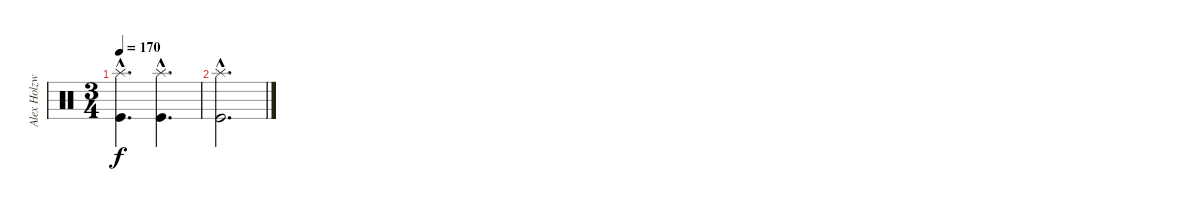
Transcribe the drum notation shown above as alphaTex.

\track ("Alex Holzwarth - Drums" "Alex Holzw") {instrument percussion}
\staff {score}
\articulation defaults
\ts (3 4)
\tempo 170
\clef neutral
\ks c
("Splash (hit)"{hac} "Kick (hit)"{hac}).4{d dy f} ("Splash (hit)"{hac} "Kick (hit)"{hac}).4{d} |
("Splash (hit)"{hac} "Kick (hit)"{hac}).2{d}
